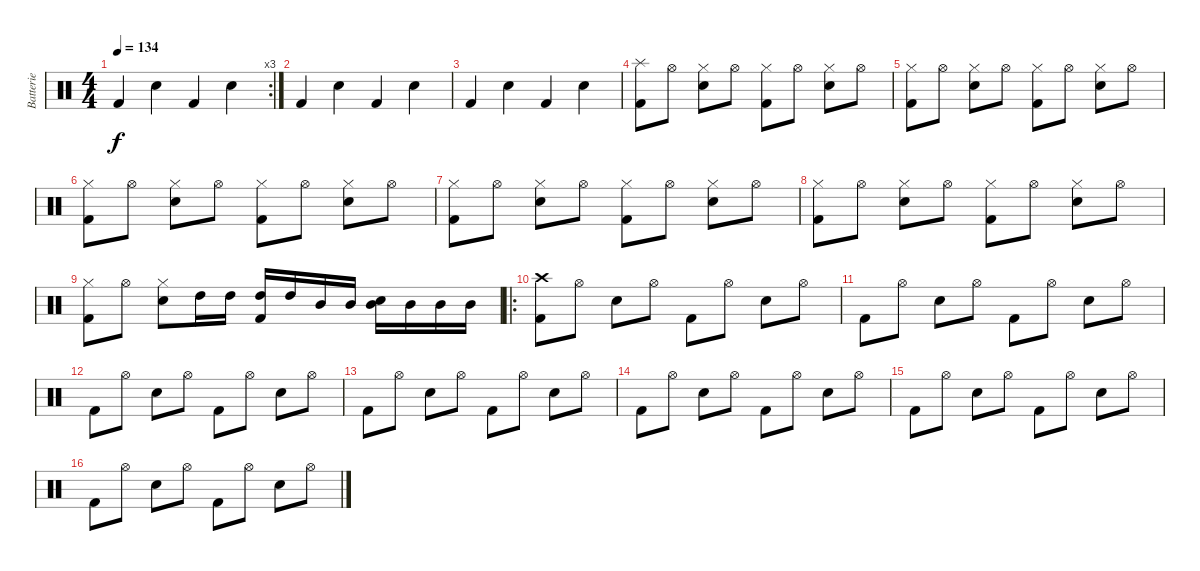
\track ("Batterie" "Batterie") {instrument percussion}
\staff {score}
\articulation defaults
\rc 3
\ts (4 4)
\tempo 134
\clef neutral
\ks c "Kick (hit) 2".4{dy f} "Snare (hit) 2".4 "Kick (hit) 2".4 "Snare (hit) 2".4
|
"Kick (hit) 2".4 "Snare (hit) 2".4 "Kick (hit) 2".4 "Snare (hit) 2".4 |
"Kick (hit) 2".4 "Snare (hit) 2".4 "Kick (hit) 2".4 "Snare (hit) 2".4 |
("Kick (hit) 2" "Splash (hit)").8 "Hi-Hat (open)".8 ("Snare (hit) 2" "Hi-Hat (closed)").8 "Hi-Hat (open)".8 ("Kick (hit) 2" "Hi-Hat (closed)").8 "Hi-Hat (open)".8 ("Snare (hit) 2" "Hi-Hat (closed)").8 "Hi-Hat (open)".8 |
("Kick (hit) 2" "Hi-Hat (closed)").8 "Hi-Hat (open)".8 ("Snare (hit) 2" "Hi-Hat (closed)").8 "Hi-Hat (open)".8 ("Kick (hit) 2" "Hi-Hat (closed)").8 "Hi-Hat (open)".8 ("Snare (hit) 2" "Hi-Hat (closed)").8 "Hi-Hat (open)".8 |
("Kick (hit) 2" "Hi-Hat (closed)").8 "Hi-Hat (open)".8 ("Snare (hit) 2" "Hi-Hat (closed)").8 "Hi-Hat (open)".8 ("Kick (hit) 2" "Hi-Hat (closed)").8 "Hi-Hat (open)".8 ("Snare (hit) 2" "Hi-Hat (closed)").8 "Hi-Hat (open)".8 |
("Kick (hit) 2" "Hi-Hat (closed)").8 "Hi-Hat (open)".8 ("Snare (hit) 2" "Hi-Hat (closed)").8 "Hi-Hat (open)".8 ("Kick (hit) 2" "Hi-Hat (closed)").8 "Hi-Hat (open)".8 ("Snare (hit) 2" "Hi-Hat (closed)").8 "Hi-Hat (open)".8 |
("Kick (hit) 2" "Hi-Hat (closed)").8 "Hi-Hat (open)".8 ("Snare (hit) 2" "Hi-Hat (closed)").8 "Hi-Hat (open)".8 ("Kick (hit) 2" "Hi-Hat (closed)").8 "Hi-Hat (open)".8 ("Snare (hit) 2" "Hi-Hat (closed)").8 "Hi-Hat (open)".8 |
("Kick (hit) 2" "Hi-Hat (closed)").8 "Hi-Hat (open)".8 ("Snare (hit) 2" "Hi-Hat (closed)").8 "High Tom (hit)".16 "High Tom (hit)".16 ("Kick (hit) 2" "High Tom (hit)").16 "High Tom (hit)".16 "Mid Tom (hit)".16 "Mid Tom (hit)".16 ("Snare (hit) 2" "Mid Tom (hit)").16 "Mid Tom (hit)".16 "Mid Tom (hit)".16 "Mid Tom (hit)".16 |
\ro
("Kick (hit) 2" "Crash high (hit)").8 "Hi-Hat (open)".8 "Snare (hit) 2".8 "Hi-Hat (open)".8 "Kick (hit) 2".8 "Hi-Hat (open)".8 "Snare (hit) 2".8 "Hi-Hat (open)".8 |
"Kick (hit) 2".8 "Hi-Hat (open)".8 "Snare (hit) 2".8 "Hi-Hat (open)".8 "Kick (hit) 2".8 "Hi-Hat (open)".8 "Snare (hit) 2".8 "Hi-Hat (open)".8 |
"Kick (hit) 2".8 "Hi-Hat (open)".8 "Snare (hit) 2".8 "Hi-Hat (open)".8 "Kick (hit) 2".8 "Hi-Hat (open)".8 "Snare (hit) 2".8 "Hi-Hat (open)".8 |
"Kick (hit) 2".8 "Hi-Hat (open)".8 "Snare (hit) 2".8 "Hi-Hat (open)".8 "Kick (hit) 2".8 "Hi-Hat (open)".8 "Snare (hit) 2".8 "Hi-Hat (open)".8 |
"Kick (hit) 2".8 "Hi-Hat (open)".8 "Snare (hit) 2".8 "Hi-Hat (open)".8 "Kick (hit) 2".8 "Hi-Hat (open)".8 "Snare (hit) 2".8 "Hi-Hat (open)".8 |
"Kick (hit) 2".8 "Hi-Hat (open)".8 "Snare (hit) 2".8 "Hi-Hat (open)".8 "Kick (hit) 2".8 "Hi-Hat (open)".8 "Snare (hit) 2".8 "Hi-Hat (open)".8 |
"Kick (hit) 2".8 "Hi-Hat (open)".8 "Snare (hit) 2".8 "Hi-Hat (open)".8 "Kick (hit) 2".8 "Hi-Hat (open)".8 "Snare (hit) 2".8 "Hi-Hat (open)".8
